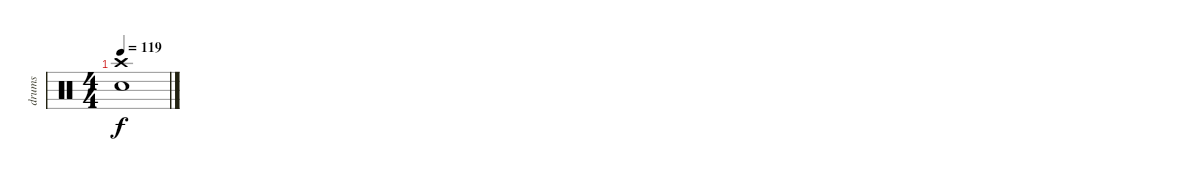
\track ("drums" "drums") {instrument percussion}
\staff {score}
\articulation defaults
\ts (4 4)
\tempo 119
\clef neutral
\ks c
("Electric Snare (hit)" "Crash high (hit)").1{dy f}
